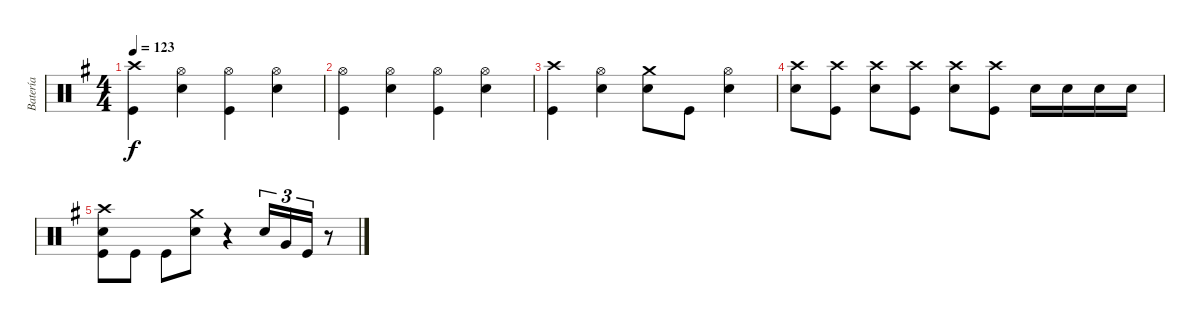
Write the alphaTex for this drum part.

\track ("Batería" "Batería") {instrument percussion}
\staff {score}
\articulation defaults
\ts (4 4)
\tempo 123
\clef neutral
\ks g
("Crash high (hit)" "Kick (hit)").4{dy f} ("Hi-Hat (open)" "Snare (hit) 2").4 ("Hi-Hat (open)" "Kick (hit)").4 ("Hi-Hat (open)" "Snare (hit) 2").4 |
("Hi-Hat (open)" "Kick (hit)").4 ("Hi-Hat (open)" "Snare (hit) 2").4 ("Hi-Hat (open)" "Kick (hit)").4 ("Hi-Hat (open)" "Snare (hit) 2").4 |
("Crash high (hit)" "Kick (hit)").4 ("Hi-Hat (open)" "Snare (hit) 2").4 ("Crash medium (hit)" "Snare (hit) 2").8 "Kick (hit)".8 ("Hi-Hat (open)" "Snare (hit) 2").4 |
("Crash high (hit)" "Snare (hit) 2").8 ("Crash high (hit)" "Kick (hit)").8 ("Crash high (hit)" "Snare (hit) 2").8 ("Crash high (hit)" "Kick (hit)").8 ("Crash high (hit)" "Snare (hit) 2").8 ("Crash high (hit)" "Kick (hit)").8 "Snare (hit) 2".16 "Snare (hit) 2".16 "Snare (hit) 2".16 "Snare (hit) 2".16 |
("Crash high (hit)" "Snare (hit) 2" "Kick (hit)").8 "Kick (hit)".8 "Kick (hit)".8 ("Crash medium (hit)" "Snare (hit) 2").8 r.4 "Snare (hit) 2".16{tu (3 2)} "Very Low Tom (hit)".16{tu (3 2)} "Kick (hit)".16{tu (3 2)} r.8
